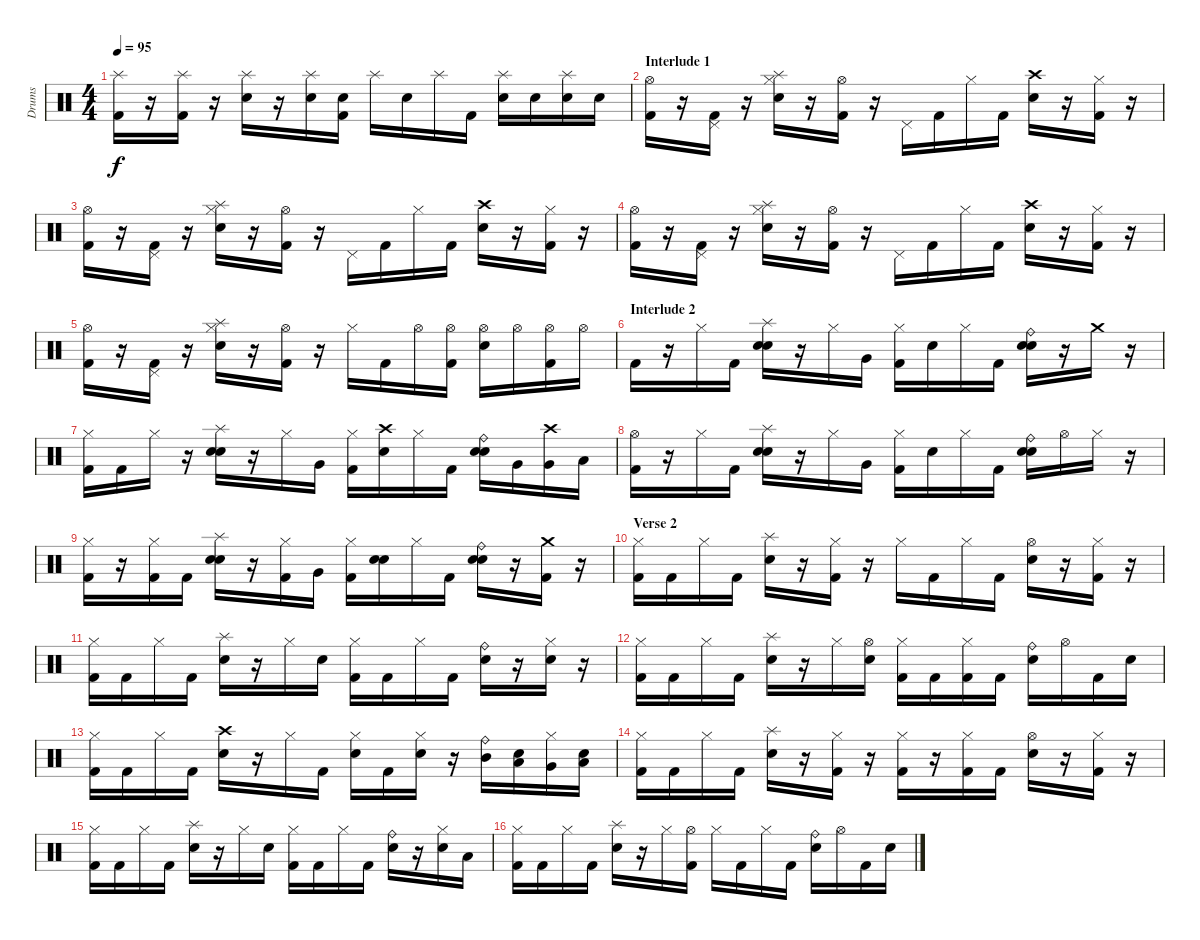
\track ("Drums" "Drums") {instrument percussion}
\staff {score}
\articulation defaults
\ts (4 4)
\tempo 95
\clef neutral
\ks c
("Splash (hit)" "Kick (hit) 2").16{dy f} r.16 ("Splash (hit)" "Kick (hit) 2").16 r.16 ("Splash (hit)" "Electric Snare (hit)").16 r.16 ("Splash (hit)" "Electric Snare (hit)").16 ("Kick (hit) 2" "Electric Snare (hit)").16 "Splash (hit)".16 "Electric Snare (hit)".16 "Splash (hit)".16 "Kick (hit) 2".16 ("Splash (hit)" "Electric Snare (hit)").16 "Electric Snare (hit)".16 ("Splash (hit)" "Electric Snare (hit)").16 "Electric Snare (hit)".16 |
\section ("" "Interlude 1")
("Hi-Hat (open)" "Kick (hit) 2").16 r.16 ("Pedal Hi-Hat (hit)" "Kick (hit) 2").16 r.16 ("Hi-Hat (closed)" "Electric Snare (hit)" "Splash (hit)").16 r.16 ("Hi-Hat (open)" "Kick (hit) 2").16 r.16 "Pedal Hi-Hat (hit)".16 "Kick (hit) 2".16 "Hi-Hat (closed)".16 "Kick (hit) 2".16 ("Crash high (hit)" "Electric Snare (hit)").16 r.16 ("Hi-Hat (closed)" "Kick (hit) 2").16 r.16 |
("Hi-Hat (open)" "Kick (hit) 2").16 r.16 ("Pedal Hi-Hat (hit)" "Kick (hit) 2").16 r.16 ("Hi-Hat (closed)" "Electric Snare (hit)" "Splash (hit)").16 r.16 ("Hi-Hat (open)" "Kick (hit) 2").16 r.16 "Pedal Hi-Hat (hit)".16 "Kick (hit) 2".16 "Hi-Hat (closed)".16 "Kick (hit) 2".16 ("Crash high (hit)" "Electric Snare (hit)").16 r.16 ("Hi-Hat (closed)" "Kick (hit) 2").16 r.16 |
("Hi-Hat (open)" "Kick (hit) 2").16 r.16 ("Pedal Hi-Hat (hit)" "Kick (hit) 2").16 r.16 ("Hi-Hat (closed)" "Electric Snare (hit)" "Splash (hit)").16 r.16 ("Hi-Hat (open)" "Kick (hit) 2").16 r.16 "Pedal Hi-Hat (hit)".16 "Kick (hit) 2".16 "Hi-Hat (closed)".16 "Kick (hit) 2".16 ("Crash high (hit)" "Electric Snare (hit)").16 r.16 ("Hi-Hat (closed)" "Kick (hit) 2").16 r.16 |
("Hi-Hat (open)" "Kick (hit) 2").16 r.16 ("Pedal Hi-Hat (hit)" "Kick (hit) 2").16 r.16 ("Hi-Hat (closed)" "Electric Snare (hit)" "Splash (hit)").16 r.16 ("Hi-Hat (open)" "Kick (hit) 2").16 r.16 "Hi-Hat (closed)".16 "Kick (hit) 2".16 "Hi-Hat (open)".16 ("Hi-Hat (open)" "Kick (hit) 2").16 ("Hi-Hat (open)" "Electric Snare (hit)").16 "Hi-Hat (open)".16 ("Hi-Hat (open)" "Kick (hit) 2").16 "Hi-Hat (open)".16 |
\section ("" "Interlude 2")
"Kick (hit) 2".16 r.16 "Hi-Hat (closed)".16 "Kick (hit) 2".16 ("Electric Snare (hit)" "Splash (hit)" "Hand Clap (hit)").16 r.16 "Hi-Hat (closed)".16 "Very Low Tom (hit)".16 ("Hi-Hat (closed)" "Kick (hit) 2").16 "Hand Clap (hit)".16 "Hi-Hat (closed)".16 "Kick (hit) 2".16 ("Electric Snare (hit)" "Ride (bell)" "Hand Clap (hit)").16 r.16 "Crash medium (hit)".16 r.16 |
("Hi-Hat (closed)" "Kick (hit) 2").16 "Kick (hit) 2".16 "Hi-Hat (closed)".16 r.16 ("Electric Snare (hit)" "Splash (hit)" "Hand Clap (hit)").16 r.16 "Hi-Hat (closed)".16 "Very Low Tom (hit)".16 ("Hi-Hat (closed)" "Kick (hit) 2").16 ("Crash high (hit)" "Hand Clap (hit)").16 "Hi-Hat (closed)".16 "Kick (hit) 2".16 ("Electric Snare (hit)" "Ride (bell)" "Hand Clap (hit)").16 "Very Low Tom (hit)".16 ("Crash high (hit)" "Very Low Tom (hit)").16 "Low Floor Tom (hit)".16 |
("Hi-Hat (open)" "Kick (hit) 2").16 r.16 "Hi-Hat (closed)".16 "Kick (hit) 2".16 ("Electric Snare (hit)" "Splash (hit)" "Hand Clap (hit)").16 r.16 "Hi-Hat (closed)".16 "Very Low Tom (hit)".16 ("Hi-Hat (closed)" "Kick (hit) 2").16 "Hand Clap (hit)".16 "Hi-Hat (closed)".16 "Kick (hit) 2".16 ("Electric Snare (hit)" "Ride (bell)" "Hand Clap (hit)").16 "Hi-Hat (open)".16 "Hi-Hat (closed)".16 r.16 |
("Hi-Hat (closed)" "Kick (hit) 2").16 r.16 ("Hi-Hat (closed)" "Kick (hit) 2").16 "Kick (hit) 2".16 ("Electric Snare (hit)" "Splash (hit)" "Hand Clap (hit)").16 r.16 ("Hi-Hat (closed)" "Kick (hit) 2").16 "Very Low Tom (hit)".16 ("Hi-Hat (closed)" "Kick (hit) 2").16 ("Electric Snare (hit)" "Hand Clap (hit)").16 "Hi-Hat (closed)".16 "Kick (hit) 2".16 ("Electric Snare (hit)" "Ride (bell)" "Hand Clap (hit)").16 r.16 ("Crash medium (hit)" "Kick (hit) 2").16 r.16 |
\section ("" "Verse 2")
("Hi-Hat (closed)" "Kick (hit) 2").16 "Kick (hit) 2".16 "Hi-Hat (closed)".16 "Kick (hit) 2".16 ("Electric Snare (hit)" "Splash (hit)").16 r.16 ("Hi-Hat (closed)" "Kick (hit) 2").16 r.16 "Hi-Hat (closed)".16 "Kick (hit) 2".16 "Hi-Hat (closed)".16 "Kick (hit) 2".16 ("Hi-Hat (open)" "Electric Snare (hit)").16 r.16 ("Hi-Hat (closed)" "Kick (hit) 2").16 r.16 |
("Hi-Hat (closed)" "Kick (hit) 2").16 "Kick (hit) 2".16 "Hi-Hat (closed)".16 "Kick (hit) 2".16 ("Electric Snare (hit)" "Splash (hit)").16 r.16 "Hi-Hat (closed)".16 "Electric Snare (hit)".16 ("Hi-Hat (closed)" "Kick (hit) 2").16 "Kick (hit) 2".16 "Hi-Hat (closed)".16 "Kick (hit) 2".16 ("Electric Snare (hit)" "Ride (bell)").16 r.16 ("Hi-Hat (closed)" "Electric Snare (hit)").16 r.16 |
("Hi-Hat (closed)" "Kick (hit) 2").16 "Kick (hit) 2".16 "Hi-Hat (closed)".16 "Kick (hit) 2".16 ("Electric Snare (hit)" "Splash (hit)").16 r.16 "Hi-Hat (closed)".16 ("Hi-Hat (open)" "Electric Snare (hit)").16 ("Hi-Hat (closed)" "Kick (hit) 2").16 "Kick (hit) 2".16 ("Hi-Hat (closed)" "Kick (hit) 2").16 "Kick (hit) 2".16 ("Electric Snare (hit)" "Ride (bell)").16 "Hi-Hat (open)".16 "Kick (hit) 2".16 "Electric Snare (hit)".16 |
("Hi-Hat (closed)" "Kick (hit) 2").16 "Kick (hit) 2".16 "Hi-Hat (closed)".16 "Kick (hit) 2".16 ("Electric Snare (hit)" "Crash high (hit)").16 r.16 "Hi-Hat (closed)".16 "Kick (hit) 2".16 ("Hi-Hat (closed)" "Electric Snare (hit)").16 "Kick (hit) 2".16 ("Hi-Hat (closed)" "Electric Snare (hit)"{tr (40 32)}).16 r.16 ("Mid Tom (hit)" "Ride (bell)").16 ("Low Tom (hit)" "Electric Snare (hit)").16 ("Hi-Hat (closed)" "Very Low Tom (hit)").16 ("Low Floor Tom (hit)" "Electric Snare (hit)").16 |
("Hi-Hat (closed)" "Kick (hit) 2").16 "Kick (hit) 2".16 "Hi-Hat (closed)".16 "Kick (hit) 2".16 ("Electric Snare (hit)" "Splash (hit)").16 r.16 ("Hi-Hat (closed)" "Kick (hit) 2").16 r.16 ("Hi-Hat (closed)" "Kick (hit) 2").16 r.16 ("Hi-Hat (closed)" "Kick (hit) 2").16 "Kick (hit) 2".16 ("Hi-Hat (open)" "Electric Snare (hit)").16 r.16 ("Hi-Hat (closed)" "Kick (hit) 2").16 r.16 |
("Hi-Hat (closed)" "Kick (hit) 2").16 "Kick (hit) 2".16 "Hi-Hat (closed)".16 "Kick (hit) 2".16 ("Electric Snare (hit)" "Splash (hit)").16 r.16 "Hi-Hat (closed)".16 "Electric Snare (hit)".16 ("Hi-Hat (closed)" "Kick (hit) 2").16 "Kick (hit) 2".16 "Hi-Hat (closed)".16 "Kick (hit) 2".16 ("Electric Snare (hit)"{tr (40 32)} "Ride (bell)").16 r.16 ("Hi-Hat (closed)" "Electric Snare (hit)").16 "Low Tom (hit)".16 |
("Hi-Hat (closed)" "Kick (hit) 2").16 "Kick (hit) 2".16 "Hi-Hat (closed)".16 "Kick (hit) 2".16 ("Electric Snare (hit)" "Splash (hit)").16 r.16 "Hi-Hat (closed)".16 ("Hi-Hat (open)" "Kick (hit) 2").16 "Hi-Hat (closed)".16 "Kick (hit) 2".16 "Hi-Hat (closed)".16 "Kick (hit) 2".16 ("Electric Snare (hit)" "Ride (bell)").16 "Hi-Hat (open)".16 "Kick (hit) 2".16 "Electric Snare (hit)".16
